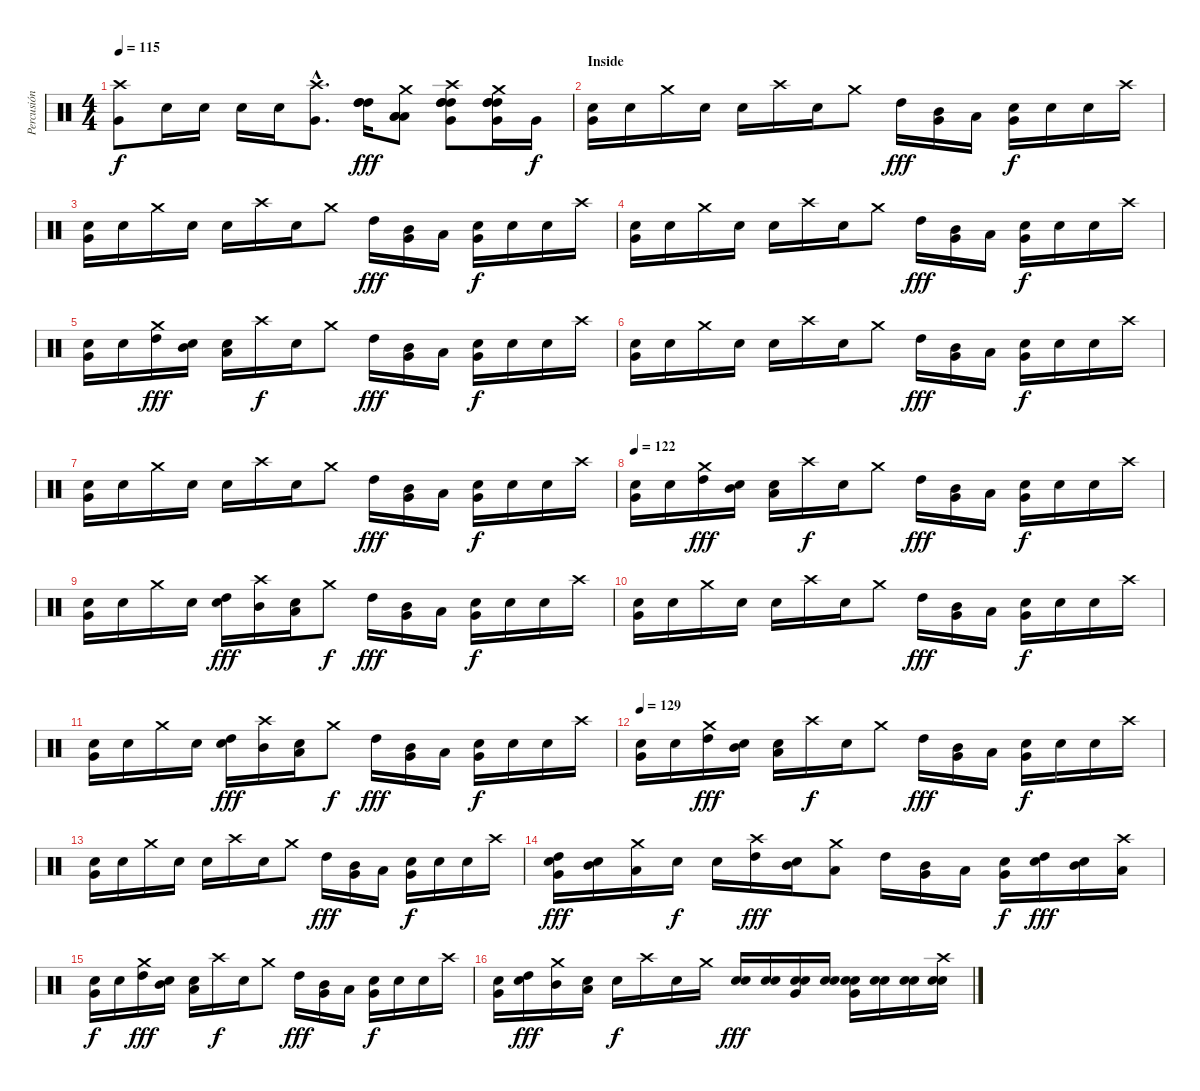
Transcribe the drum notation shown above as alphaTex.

\track ("Percusión" "Percusión") {instrument percussion}
\staff {score}
\articulation defaults
\ts (4 4)
\tempo 115
\clef neutral
\ks c
("Crash high (hit)" "Very Low Tom (hit)").8{dy f} "Electric Snare (hit)".16 "Electric Snare (hit)".16 "Electric Snare (hit)".16 "Electric Snare (hit)".16 ("Crash high (hit)"{hac} "Very Low Tom (hit)"{hac}).8{d} ("High Tom (hit)" "High Tom (hit)" "High Tom (hit)").16{dy fff} ("Crash medium (hit)" "Low Tom (hit)" "Low Tom (hit)" "Low Tom (hit)").8 ("Crash high (hit)" "High Tom (hit)" "High Tom (hit)" "High Tom (hit)" "Very Low Tom (hit)").8 ("Crash medium (hit)" "High Tom (hit)" "High Tom (hit)" "High Tom (hit)" "Very Low Tom (hit)").16 "Very Low Tom (hit)".16{dy f} |
\section ("" "Inside")
("Electric Snare (hit)" "Very Low Tom (hit)").16 "Electric Snare (hit)".16 "Crash medium (hit)".16 "Electric Snare (hit)".16 "Electric Snare (hit)".16 "Crash high (hit)".16 "Electric Snare (hit)".16 "Crash medium (hit)".8 "High Tom (hit)".16{dy fff} ("Mid Tom (hit)" "Very Low Tom (hit)").16 "Low Tom (hit)".16 ("Electric Snare (hit)" "Very Low Tom (hit)").16{dy f} "Electric Snare (hit)".16 "Electric Snare (hit)".16 "Crash high (hit)".16 |
("Electric Snare (hit)" "Very Low Tom (hit)").16 "Electric Snare (hit)".16 "Crash medium (hit)".16 "Electric Snare (hit)".16 "Electric Snare (hit)".16 "Crash high (hit)".16 "Electric Snare (hit)".16 "Crash medium (hit)".8 "High Tom (hit)".16{dy fff} ("Mid Tom (hit)" "Very Low Tom (hit)").16 "Low Tom (hit)".16 ("Electric Snare (hit)" "Very Low Tom (hit)").16{dy f} "Electric Snare (hit)".16 "Electric Snare (hit)".16 "Crash high (hit)".16 |
("Electric Snare (hit)" "Very Low Tom (hit)").16 "Electric Snare (hit)".16 "Crash medium (hit)".16 "Electric Snare (hit)".16 "Electric Snare (hit)".16 "Crash high (hit)".16 "Electric Snare (hit)".16 "Crash medium (hit)".8 "High Tom (hit)".16{dy fff} ("Mid Tom (hit)" "Very Low Tom (hit)").16 "Low Tom (hit)".16 ("Electric Snare (hit)" "Very Low Tom (hit)").16{dy f} "Electric Snare (hit)".16 "Electric Snare (hit)".16 "Crash high (hit)".16 |
("Electric Snare (hit)" "Very Low Tom (hit)").16 "Electric Snare (hit)".16 ("Crash medium (hit)" "High Tom (hit)").16{dy fff} ("Electric Snare (hit)" "Mid Tom (hit)").16 ("Electric Snare (hit)" "Low Tom (hit)").16 "Crash high (hit)".16{dy f} "Electric Snare (hit)".16 "Crash medium (hit)".8 "High Tom (hit)".16{dy fff} ("Mid Tom (hit)" "Very Low Tom (hit)").16 "Low Tom (hit)".16 ("Electric Snare (hit)" "Very Low Tom (hit)").16{dy f} "Electric Snare (hit)".16 "Electric Snare (hit)".16 "Crash high (hit)".16 |
("Electric Snare (hit)" "Very Low Tom (hit)").16 "Electric Snare (hit)".16 "Crash medium (hit)".16 "Electric Snare (hit)".16 "Electric Snare (hit)".16 "Crash high (hit)".16 "Electric Snare (hit)".16 "Crash medium (hit)".8 "High Tom (hit)".16{dy fff} ("Mid Tom (hit)" "Very Low Tom (hit)").16 "Low Tom (hit)".16 ("Electric Snare (hit)" "Very Low Tom (hit)").16{dy f} "Electric Snare (hit)".16 "Electric Snare (hit)".16 "Crash high (hit)".16 |
("Electric Snare (hit)" "Very Low Tom (hit)").16 "Electric Snare (hit)".16 "Crash medium (hit)".16 "Electric Snare (hit)".16 "Electric Snare (hit)".16 "Crash high (hit)".16 "Electric Snare (hit)".16 "Crash medium (hit)".8 "High Tom (hit)".16{dy fff} ("Mid Tom (hit)" "Very Low Tom (hit)").16 "Low Tom (hit)".16 ("Electric Snare (hit)" "Very Low Tom (hit)").16{dy f} "Electric Snare (hit)".16 "Electric Snare (hit)".16 "Crash high (hit)".16 |
\tempo 122
("Electric Snare (hit)" "Very Low Tom (hit)").16 "Electric Snare (hit)".16 ("Crash medium (hit)" "High Tom (hit)").16{dy fff} ("Electric Snare (hit)" "Mid Tom (hit)").16 ("Electric Snare (hit)" "Low Tom (hit)").16 "Crash high (hit)".16{dy f} "Electric Snare (hit)".16 "Crash medium (hit)".8 "High Tom (hit)".16{dy fff} ("Mid Tom (hit)" "Very Low Tom (hit)").16 "Low Tom (hit)".16 ("Electric Snare (hit)" "Very Low Tom (hit)").16{dy f} "Electric Snare (hit)".16 "Electric Snare (hit)".16 "Crash high (hit)".16 |
("Electric Snare (hit)" "Very Low Tom (hit)").16 "Electric Snare (hit)".16 "Crash medium (hit)".16 "Electric Snare (hit)".16 ("Electric Snare (hit)" "High Tom (hit)").16{dy fff} ("Crash high (hit)" "Mid Tom (hit)").16 ("Electric Snare (hit)" "Low Tom (hit)").16 "Crash medium (hit)".8{dy f} "High Tom (hit)".16{dy fff} ("Mid Tom (hit)" "Very Low Tom (hit)").16 "Low Tom (hit)".16 ("Electric Snare (hit)" "Very Low Tom (hit)").16{dy f} "Electric Snare (hit)".16 "Electric Snare (hit)".16 "Crash high (hit)".16 |
("Electric Snare (hit)" "Very Low Tom (hit)").16 "Electric Snare (hit)".16 "Crash medium (hit)".16 "Electric Snare (hit)".16 "Electric Snare (hit)".16 "Crash high (hit)".16 "Electric Snare (hit)".16 "Crash medium (hit)".8 "High Tom (hit)".16{dy fff} ("Mid Tom (hit)" "Very Low Tom (hit)").16 "Low Tom (hit)".16 ("Electric Snare (hit)" "Very Low Tom (hit)").16{dy f} "Electric Snare (hit)".16 "Electric Snare (hit)".16 "Crash high (hit)".16 |
("Electric Snare (hit)" "Very Low Tom (hit)").16 "Electric Snare (hit)".16 "Crash medium (hit)".16 "Electric Snare (hit)".16 ("Electric Snare (hit)" "High Tom (hit)").16{dy fff} ("Crash high (hit)" "Mid Tom (hit)").16 ("Electric Snare (hit)" "Low Tom (hit)").16 "Crash medium (hit)".8{dy f} "High Tom (hit)".16{dy fff} ("Mid Tom (hit)" "Very Low Tom (hit)").16 "Low Tom (hit)".16 ("Electric Snare (hit)" "Very Low Tom (hit)").16{dy f} "Electric Snare (hit)".16 "Electric Snare (hit)".16 "Crash high (hit)".16 |
\tempo 129
("Electric Snare (hit)" "Very Low Tom (hit)").16 "Electric Snare (hit)".16 ("Crash medium (hit)" "High Tom (hit)").16{dy fff} ("Electric Snare (hit)" "Mid Tom (hit)").16 ("Electric Snare (hit)" "Low Tom (hit)").16 "Crash high (hit)".16{dy f} "Electric Snare (hit)".16 "Crash medium (hit)".8 "High Tom (hit)".16{dy fff} ("Mid Tom (hit)" "Very Low Tom (hit)").16 "Low Tom (hit)".16 ("Electric Snare (hit)" "Very Low Tom (hit)").16{dy f} "Electric Snare (hit)".16 "Electric Snare (hit)".16 "Crash high (hit)".16 |
("Electric Snare (hit)" "Very Low Tom (hit)").16 "Electric Snare (hit)".16 "Crash medium (hit)".16 "Electric Snare (hit)".16 "Electric Snare (hit)".16 "Crash high (hit)".16 "Electric Snare (hit)".16 "Crash medium (hit)".8 "High Tom (hit)".16{dy fff} ("Mid Tom (hit)" "Very Low Tom (hit)").16 "Low Tom (hit)".16 ("Electric Snare (hit)" "Very Low Tom (hit)").16{dy f} "Electric Snare (hit)".16 "Electric Snare (hit)".16 "Crash high (hit)".16 |
("Electric Snare (hit)" "High Tom (hit)" "Very Low Tom (hit)").16{dy fff} ("Electric Snare (hit)" "Mid Tom (hit)").16 ("Crash medium (hit)" "Low Tom (hit)").16 "Electric Snare (hit)".16{dy f} "Electric Snare (hit)".16 ("Crash high (hit)" "High Tom (hit)").16{dy fff} ("Electric Snare (hit)" "Mid Tom (hit)").16 ("Crash medium (hit)" "Low Tom (hit)").8 "High Tom (hit)".16 ("Mid Tom (hit)" "Very Low Tom (hit)").16 "Low Tom (hit)".16 ("Electric Snare (hit)" "Very Low Tom (hit)").16{dy f} ("Electric Snare (hit)" "High Tom (hit)").16{dy fff} ("Electric Snare (hit)" "Mid Tom (hit)").16 ("Crash high (hit)" "Low Tom (hit)").16 |
("Electric Snare (hit)" "Very Low Tom (hit)").16{dy f} "Electric Snare (hit)".16 ("Crash medium (hit)" "High Tom (hit)").16{dy fff} ("Electric Snare (hit)" "Mid Tom (hit)").16 ("Electric Snare (hit)" "Low Tom (hit)").16 "Crash high (hit)".16{dy f} "Electric Snare (hit)".16 "Crash medium (hit)".8 "High Tom (hit)".16{dy fff} ("Mid Tom (hit)" "Very Low Tom (hit)").16 "Low Tom (hit)".16 ("Electric Snare (hit)" "Very Low Tom (hit)").16{dy f} "Electric Snare (hit)".16 "Electric Snare (hit)".16 "Crash high (hit)".16 |
("Electric Snare (hit)" "Very Low Tom (hit)").16 ("Electric Snare (hit)" "High Tom (hit)").16{dy fff} ("Crash medium (hit)" "Mid Tom (hit)").16 ("Electric Snare (hit)" "Low Tom (hit)").16 "Electric Snare (hit)".16{dy f} "Crash high (hit)".16 "Electric Snare (hit)".16 "Crash medium (hit)".16 ("Electric Snare (hit)" "Electric Snare (hit)").16{dy fff} ("Electric Snare (hit)" "Electric Snare (hit)").16 ("Electric Snare (hit)" "Electric Snare (hit)" "Very Low Tom (hit)").16 ("Electric Snare (hit)" "Electric Snare (hit)").16 ("Electric Snare (hit)" "Electric Snare (hit)" "Very Low Tom (hit)").16 ("Electric Snare (hit)" "Electric Snare (hit)").16 ("Electric Snare (hit)" "Electric Snare (hit)").16 ("Crash high (hit)" "Electric Snare (hit)" "Electric Snare (hit)").16
